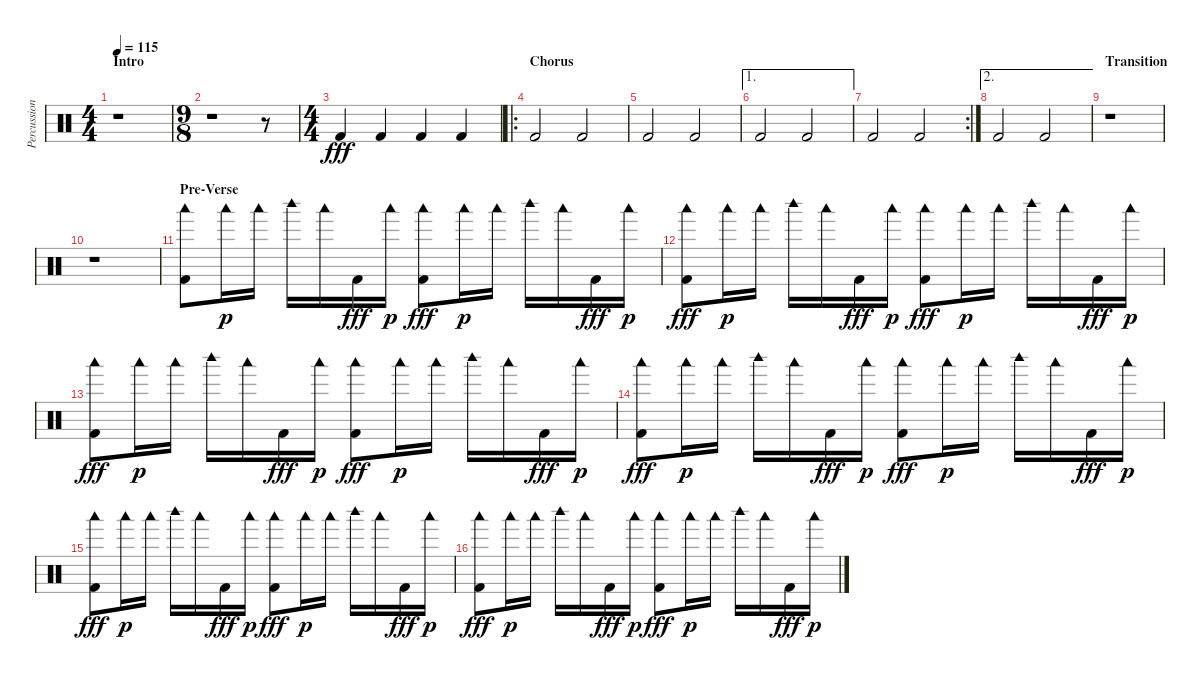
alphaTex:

\track ("Percussion/Booster" "Percussion") {instrument percussion}
\staff {score}
\articulation defaults
\ts (4 4)
\section ("" "Intro")
\tempo 115
\clef neutral
\ks c
r.1{dy fff} |
\ts (9 8)
r.1 r.8 |
\ts (4 4)
"Kick (hit) 2".4 "Kick (hit) 2".4 "Kick (hit) 2".4 "Kick (hit) 2".4 |
\ro
\section ("" "Chorus")
"Kick (hit) 2".2 "Kick (hit) 2".2 |
"Kick (hit) 2".2 "Kick (hit) 2".2 |
\ae 1 "Kick (hit) 2".2 "Kick (hit) 2".2
|
\rc 2 "Kick (hit) 2".2 "Kick (hit) 2".2
|
\ae 2 "Kick (hit) 2".2 "Kick (hit) 2".2
|
\section ("" "Transition")
r.1 |
r.1 |
\section ("" "Pre-Verse")
("Woodblock low (hit)" "Kick (hit) 2").8 "Woodblock low (hit)".16{dy p} "Woodblock low (hit)".16 "Woodblock high (hit)".16 "Woodblock low (hit)".16 "Kick (hit) 2".16{dy fff} "Woodblock low (hit)".16{dy p} ("Woodblock low (hit)" "Kick (hit) 2").8{dy fff} "Woodblock low (hit)".16{dy p} "Woodblock low (hit)".16 "Woodblock high (hit)".16 "Woodblock low (hit)".16 "Kick (hit) 2".16{dy fff} "Woodblock low (hit)".16{dy p} |
("Woodblock low (hit)" "Kick (hit) 2").8{dy fff} "Woodblock low (hit)".16{dy p} "Woodblock low (hit)".16 "Woodblock high (hit)".16 "Woodblock low (hit)".16 "Kick (hit) 2".16{dy fff} "Woodblock low (hit)".16{dy p} ("Woodblock low (hit)" "Kick (hit) 2").8{dy fff} "Woodblock low (hit)".16{dy p} "Woodblock low (hit)".16 "Woodblock high (hit)".16 "Woodblock low (hit)".16 "Kick (hit) 2".16{dy fff} "Woodblock low (hit)".16{dy p} |
("Woodblock low (hit)" "Kick (hit) 2").8{dy fff} "Woodblock low (hit)".16{dy p} "Woodblock low (hit)".16 "Woodblock high (hit)".16 "Woodblock low (hit)".16 "Kick (hit) 2".16{dy fff} "Woodblock low (hit)".16{dy p} ("Woodblock low (hit)" "Kick (hit) 2").8{dy fff} "Woodblock low (hit)".16{dy p} "Woodblock low (hit)".16 "Woodblock high (hit)".16 "Woodblock low (hit)".16 "Kick (hit) 2".16{dy fff} "Woodblock low (hit)".16{dy p} |
("Woodblock low (hit)" "Kick (hit) 2").8{dy fff} "Woodblock low (hit)".16{dy p} "Woodblock low (hit)".16 "Woodblock high (hit)".16 "Woodblock low (hit)".16 "Kick (hit) 2".16{dy fff} "Woodblock low (hit)".16{dy p} ("Woodblock low (hit)" "Kick (hit) 2").8{dy fff} "Woodblock low (hit)".16{dy p} "Woodblock low (hit)".16 "Woodblock high (hit)".16 "Woodblock low (hit)".16 "Kick (hit) 2".16{dy fff} "Woodblock low (hit)".16{dy p} |
("Woodblock low (hit)" "Kick (hit) 2").8{dy fff} "Woodblock low (hit)".16{dy p} "Woodblock low (hit)".16 "Woodblock high (hit)".16 "Woodblock low (hit)".16 "Kick (hit) 2".16{dy fff} "Woodblock low (hit)".16{dy p} ("Woodblock low (hit)" "Kick (hit) 2").8{dy fff} "Woodblock low (hit)".16{dy p} "Woodblock low (hit)".16 "Woodblock high (hit)".16 "Woodblock low (hit)".16 "Kick (hit) 2".16{dy fff} "Woodblock low (hit)".16{dy p} |
("Woodblock low (hit)" "Kick (hit) 2").8{dy fff} "Woodblock low (hit)".16{dy p} "Woodblock low (hit)".16 "Woodblock high (hit)".16 "Woodblock low (hit)".16 "Kick (hit) 2".16{dy fff} "Woodblock low (hit)".16{dy p} ("Woodblock low (hit)" "Kick (hit) 2").8{dy fff} "Woodblock low (hit)".16{dy p} "Woodblock low (hit)".16 "Woodblock high (hit)".16 "Woodblock low (hit)".16 "Kick (hit) 2".16{dy fff} "Woodblock low (hit)".16{dy p}
